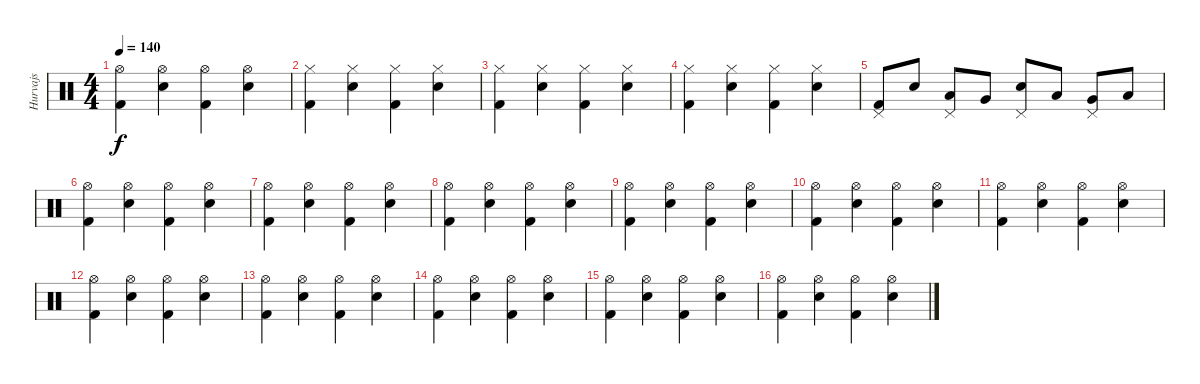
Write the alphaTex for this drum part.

\track ("Hurvajs" "Hurvajs") {instrument percussion}
\staff {score}
\articulation defaults
\ts (4 4)
\tempo 140
\clef neutral
\ks c
("Hi-Hat (open)" "Kick (hit) 2").4{dy f} ("Hi-Hat (open)" "Snare (hit) 2").4 ("Hi-Hat (open)" "Kick (hit) 2").4 ("Hi-Hat (open)" "Snare (hit) 2").4 |
("Hi-Hat (closed)" "Kick (hit) 2").4 ("Hi-Hat (closed)" "Snare (hit) 2").4 ("Hi-Hat (closed)" "Kick (hit) 2").4 ("Hi-Hat (closed)" "Snare (hit) 2").4 |
("Hi-Hat (closed)" "Kick (hit) 2").4 ("Hi-Hat (closed)" "Snare (hit) 2").4 ("Hi-Hat (closed)" "Kick (hit) 2").4 ("Hi-Hat (closed)" "Snare (hit) 2").4 |
("Hi-Hat (closed)" "Kick (hit) 2").4 ("Hi-Hat (closed)" "Snare (hit) 2").4 ("Hi-Hat (closed)" "Kick (hit) 2").4 ("Hi-Hat (closed)" "Snare (hit) 2").4 |
("Pedal Hi-Hat (hit)" "Kick (hit) 2").8 "Snare (hit) 2".8 ("Low Tom (hit)" "Pedal Hi-Hat (hit)").8 "Very Low Tom (hit)".8 ("Pedal Hi-Hat (hit)" "Snare (hit) 2").8 "Low Tom (hit)".8 ("Very Low Tom (hit)" "Pedal Hi-Hat (hit)").8 "Low Floor Tom (hit)".8 |
("Hi-Hat (open)" "Kick (hit) 2").4 ("Hi-Hat (open)" "Snare (hit) 2").4 ("Hi-Hat (open)" "Kick (hit) 2").4 ("Hi-Hat (open)" "Snare (hit) 2").4 |
("Hi-Hat (open)" "Kick (hit) 2").4 ("Hi-Hat (open)" "Snare (hit) 2").4 ("Hi-Hat (open)" "Kick (hit) 2").4 ("Hi-Hat (open)" "Snare (hit) 2").4 |
("Hi-Hat (open)" "Kick (hit) 2").4 ("Hi-Hat (open)" "Snare (hit) 2").4 ("Hi-Hat (open)" "Kick (hit) 2").4 ("Hi-Hat (open)" "Snare (hit) 2").4 |
("Hi-Hat (open)" "Kick (hit) 2").4 ("Hi-Hat (open)" "Snare (hit) 2").4 ("Hi-Hat (open)" "Kick (hit) 2").4 ("Hi-Hat (open)" "Snare (hit) 2").4 |
("Hi-Hat (open)" "Kick (hit) 2").4 ("Hi-Hat (open)" "Snare (hit) 2").4 ("Hi-Hat (open)" "Kick (hit) 2").4 ("Hi-Hat (open)" "Snare (hit) 2").4 |
("Hi-Hat (open)" "Kick (hit) 2").4 ("Hi-Hat (open)" "Snare (hit) 2").4 ("Hi-Hat (open)" "Kick (hit) 2").4 ("Hi-Hat (open)" "Snare (hit) 2").4 |
("Hi-Hat (open)" "Kick (hit) 2").4 ("Hi-Hat (open)" "Snare (hit) 2").4 ("Hi-Hat (open)" "Kick (hit) 2").4 ("Hi-Hat (open)" "Snare (hit) 2").4 |
("Hi-Hat (open)" "Kick (hit) 2").4 ("Hi-Hat (open)" "Snare (hit) 2").4 ("Hi-Hat (open)" "Kick (hit) 2").4 ("Hi-Hat (open)" "Snare (hit) 2").4 |
("Hi-Hat (open)" "Kick (hit) 2").4 ("Hi-Hat (open)" "Snare (hit) 2").4 ("Hi-Hat (open)" "Kick (hit) 2").4 ("Hi-Hat (open)" "Snare (hit) 2").4 |
("Hi-Hat (open)" "Kick (hit) 2").4 ("Hi-Hat (open)" "Snare (hit) 2").4 ("Hi-Hat (open)" "Kick (hit) 2").4 ("Hi-Hat (open)" "Snare (hit) 2").4 |
("Hi-Hat (open)" "Kick (hit) 2").4 ("Hi-Hat (open)" "Snare (hit) 2").4 ("Hi-Hat (open)" "Kick (hit) 2").4 ("Hi-Hat (open)" "Snare (hit) 2").4
